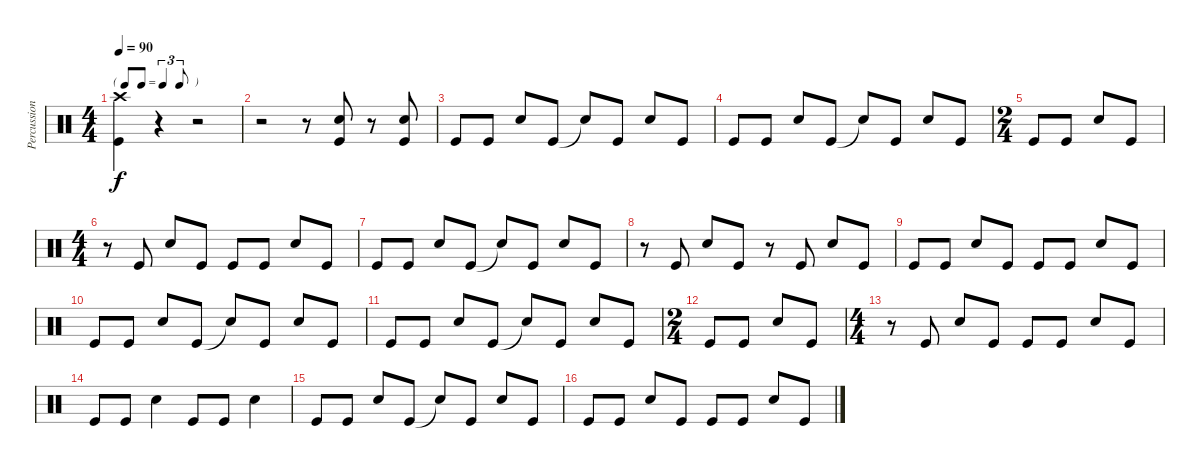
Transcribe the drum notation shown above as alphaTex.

\track ("Percussion" "Percussion") {instrument percussion}
\staff {score}
\articulation defaults
\ts (4 4)
\tf triplet8th
\tempo 90
\clef neutral
\ks c
("Crash high (hit)" "Kick (hit)").4{dy f} r.4 r.2 |
r.2 r.8 ("Snare (hit) 2" "Kick (hit)").8 r.8 ("Snare (hit) 2" "Kick (hit)").8 |
"Kick (hit)".8 "Kick (hit)".8 "Snare (hit) 2".8 "Kick (hit)".8 "Snare (hit)"{t}.8 "Kick (hit)".8 "Snare (hit) 2".8 "Kick (hit)".8 |
"Kick (hit)".8 "Kick (hit)".8 "Snare (hit) 2".8 "Kick (hit)".8 "Snare (hit)"{t}.8 "Kick (hit)".8 "Snare (hit) 2".8 "Kick (hit)".8 |
\ts (2 4)
"Kick (hit)".8 "Kick (hit)".8 "Snare (hit) 2".8 "Kick (hit)".8 |
\ts (4 4)
r.8 "Kick (hit)".8 "Snare (hit) 2".8 "Kick (hit)".8 "Kick (hit)".8 "Kick (hit)".8 "Snare (hit) 2".8 "Kick (hit)".8 |
"Kick (hit)".8 "Kick (hit)".8 "Snare (hit) 2".8 "Kick (hit)".8 "Snare (hit)"{t}.8 "Kick (hit)".8 "Snare (hit) 2".8 "Kick (hit)".8 |
r.8 "Kick (hit)".8 "Snare (hit) 2".8 "Kick (hit)".8 r.8 "Kick (hit)".8 "Snare (hit) 2".8 "Kick (hit)".8 |
"Kick (hit)".8 "Kick (hit)".8 "Snare (hit) 2".8 "Kick (hit)".8 "Kick (hit)".8 "Kick (hit)".8 "Snare (hit) 2".8 "Kick (hit)".8 |
"Kick (hit)".8 "Kick (hit)".8 "Snare (hit) 2".8 "Kick (hit)".8 "Snare (hit)"{t}.8 "Kick (hit)".8 "Snare (hit) 2".8 "Kick (hit)".8 |
"Kick (hit)".8 "Kick (hit)".8 "Snare (hit) 2".8 "Kick (hit)".8 "Snare (hit)"{t}.8 "Kick (hit)".8 "Snare (hit) 2".8 "Kick (hit)".8 |
\ts (2 4)
"Kick (hit)".8 "Kick (hit)".8 "Snare (hit) 2".8 "Kick (hit)".8 |
\ts (4 4)
r.8 "Kick (hit)".8 "Snare (hit) 2".8 "Kick (hit)".8 "Kick (hit)".8 "Kick (hit)".8 "Snare (hit) 2".8 "Kick (hit)".8 |
"Kick (hit)".8 "Kick (hit)".8 "Snare (hit) 2".4 "Kick (hit)".8 "Kick (hit)".8 "Snare (hit) 2".4 |
"Kick (hit)".8 "Kick (hit)".8 "Snare (hit) 2".8 "Kick (hit)".8 "Snare (hit)"{t}.8 "Kick (hit)".8 "Snare (hit) 2".8 "Kick (hit)".8 |
"Kick (hit)".8 "Kick (hit)".8 "Snare (hit) 2".8 "Kick (hit)".8 "Kick (hit)".8 "Kick (hit)".8 "Snare (hit) 2".8 "Kick (hit)".8
